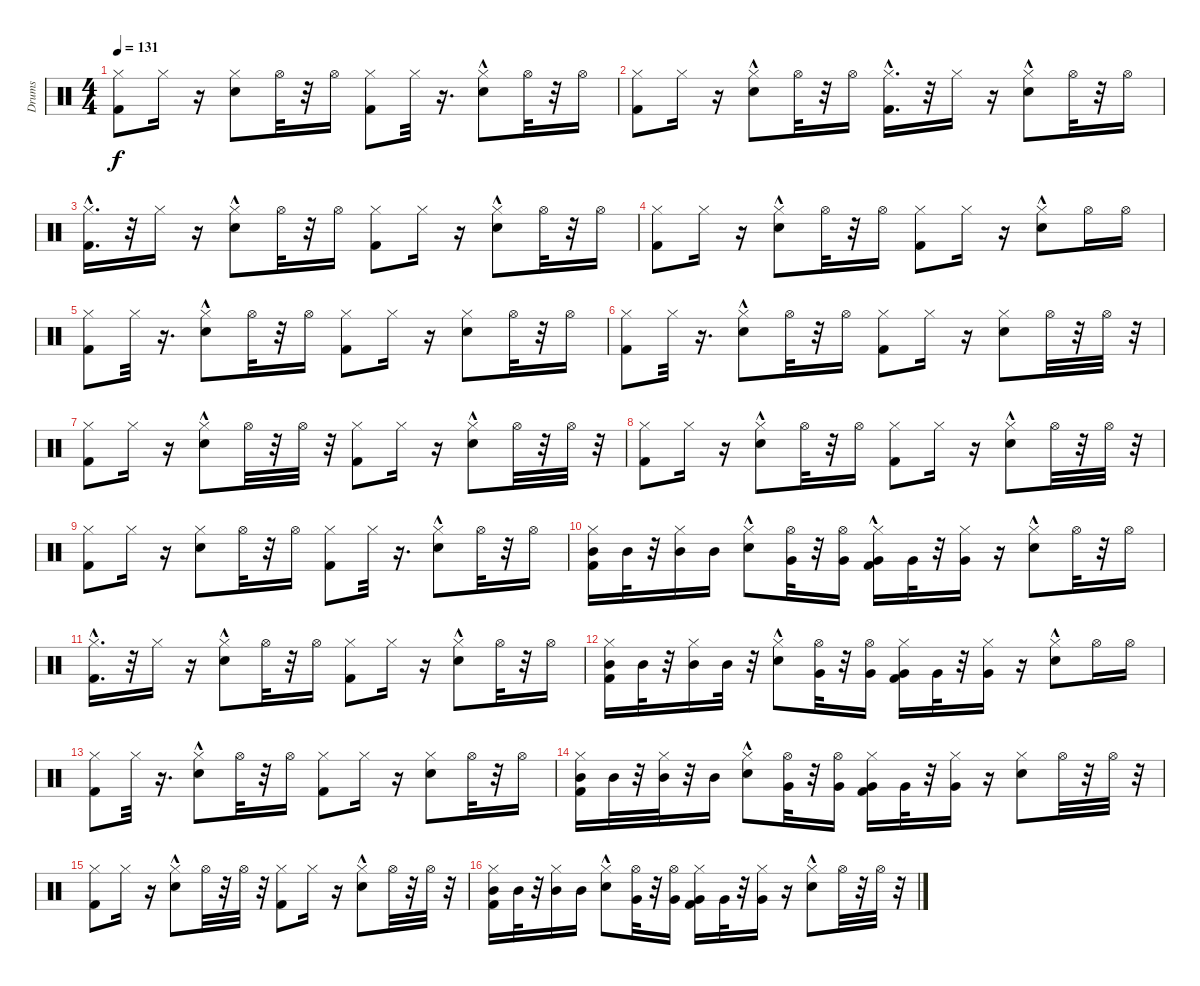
\track ("Drums" "Drums") {instrument percussion}
\staff {score}
\articulation defaults
\ts (4 4)
\tempo 131
\clef neutral
\ks c
("Kick (hit) 2" "Hi-Hat (closed)").8{dy f} "Hi-Hat (closed)".16 r.16 ("Snare (hit) 2" "Hi-Hat (closed)").8 "Hi-Hat (open)".32 r.32 "Hi-Hat (open)".16 ("Kick (hit) 2" "Hi-Hat (closed)").8 "Hi-Hat (closed)".32 r.16{d} ("Snare (hit) 2" "Hi-Hat (closed)"{hac}).8 "Hi-Hat (open)".32 r.32 "Hi-Hat (open)".16 |
("Kick (hit) 2" "Hi-Hat (closed)").8 "Hi-Hat (closed)".16 r.16 ("Snare (hit) 2" "Hi-Hat (closed)"{hac}).8 "Hi-Hat (open)".32 r.32 "Hi-Hat (open)".16 ("Kick (hit) 2"{hac} "Hi-Hat (closed)").16{d} r.32 "Hi-Hat (closed)".16 r.16 ("Snare (hit) 2" "Hi-Hat (closed)"{hac}).8 "Hi-Hat (open)".32 r.32 "Hi-Hat (open)".16 |
("Kick (hit) 2"{hac} "Hi-Hat (closed)").16{d} r.32 "Hi-Hat (closed)".16 r.16 ("Snare (hit) 2" "Hi-Hat (closed)"{hac}).8 "Hi-Hat (open)".32 r.32 "Hi-Hat (open)".16 ("Kick (hit) 2" "Hi-Hat (closed)").8 "Hi-Hat (closed)".16 r.16 ("Snare (hit) 2" "Hi-Hat (closed)"{hac}).8 "Hi-Hat (open)".32 r.32 "Hi-Hat (open)".16 |
("Kick (hit) 2" "Hi-Hat (closed)").8 "Hi-Hat (closed)".16 r.16 ("Snare (hit) 2" "Hi-Hat (closed)"{hac}).8 "Hi-Hat (open)".32 r.32 "Hi-Hat (open)".16 ("Kick (hit) 2" "Hi-Hat (closed)").8 "Hi-Hat (closed)".16 r.16 ("Snare (hit) 2" "Hi-Hat (closed)"{hac}).8 "Hi-Hat (open)".16 "Hi-Hat (open)".16 |
("Kick (hit) 2" "Hi-Hat (closed)").8 "Hi-Hat (closed)".32 r.16{d} ("Snare (hit) 2" "Hi-Hat (closed)"{hac}).8 "Hi-Hat (open)".32 r.32 "Hi-Hat (open)".16 ("Kick (hit) 2" "Hi-Hat (closed)").8 "Hi-Hat (closed)".16 r.16 ("Snare (hit) 2" "Hi-Hat (closed)").8 "Hi-Hat (open)".32 r.32 "Hi-Hat (open)".16 |
("Kick (hit) 2" "Hi-Hat (closed)").8 "Hi-Hat (closed)".32 r.16{d} ("Snare (hit) 2" "Hi-Hat (closed)"{hac}).8 "Hi-Hat (open)".32 r.32 "Hi-Hat (open)".16 ("Kick (hit) 2" "Hi-Hat (closed)").8 "Hi-Hat (closed)".16 r.16 ("Snare (hit) 2" "Hi-Hat (closed)").8 "Hi-Hat (open)".32 r.32 "Hi-Hat (open)".32 r.32 |
("Kick (hit) 2" "Hi-Hat (closed)").8 "Hi-Hat (closed)".16 r.16 ("Snare (hit) 2" "Hi-Hat (closed)"{hac}).8 "Hi-Hat (open)".32 r.32 "Hi-Hat (open)".32 r.32 ("Kick (hit) 2" "Hi-Hat (closed)").8 "Hi-Hat (closed)".16 r.16 ("Snare (hit) 2" "Hi-Hat (closed)"{hac}).8 "Hi-Hat (open)".32 r.32 "Hi-Hat (open)".32 r.32 |
("Kick (hit) 2" "Hi-Hat (closed)").8 "Hi-Hat (closed)".16 r.16 ("Snare (hit) 2" "Hi-Hat (closed)"{hac}).8 "Hi-Hat (open)".32 r.32 "Hi-Hat (open)".16 ("Kick (hit) 2" "Hi-Hat (closed)").8 "Hi-Hat (closed)".16 r.16 ("Snare (hit) 2" "Hi-Hat (closed)"{hac}).8 "Hi-Hat (open)".32 r.32 "Hi-Hat (open)".32 r.32 |
("Kick (hit) 2" "Hi-Hat (closed)").8 "Hi-Hat (closed)".16 r.16 ("Snare (hit) 2" "Hi-Hat (closed)").8 "Hi-Hat (open)".32 r.32 "Hi-Hat (open)".16 ("Kick (hit) 2" "Hi-Hat (closed)").8 "Hi-Hat (closed)".32 r.16{d} ("Snare (hit) 2" "Hi-Hat (closed)"{hac}).8 "Hi-Hat (open)".32 r.32 "Hi-Hat (open)".16 |
("Kick (hit) 2" "Hi-Hat (closed)" "Mid Tom (hit)").16 "Mid Tom (hit)".32 r.32 ("Hi-Hat (closed)" "Mid Tom (hit)").16 "Mid Tom (hit)".16 ("Snare (hit) 2" "Hi-Hat (closed)"{hac}).8 ("Hi-Hat (open)" "Very Low Tom (hit)").32 r.32 ("Hi-Hat (open)" "Very Low Tom (hit)").16 ("Kick (hit) 2"{hac} "Hi-Hat (closed)" "Very Low Tom (hit)").16 "Very Low Tom (hit)".32 r.32 ("Hi-Hat (closed)" "Very Low Tom (hit)").16 r.16 ("Snare (hit) 2" "Hi-Hat (closed)"{hac}).8 "Hi-Hat (open)".32 r.32 "Hi-Hat (open)".16 |
("Kick (hit) 2"{hac} "Hi-Hat (closed)").16{d} r.32 "Hi-Hat (closed)".16 r.16 ("Snare (hit) 2" "Hi-Hat (closed)"{hac}).8 "Hi-Hat (open)".32 r.32 "Hi-Hat (open)".16 ("Kick (hit) 2" "Hi-Hat (closed)").8 "Hi-Hat (closed)".16 r.16 ("Snare (hit) 2" "Hi-Hat (closed)"{hac}).8 "Hi-Hat (open)".32 r.32 "Hi-Hat (open)".16 |
("Kick (hit) 2" "Hi-Hat (closed)" "Mid Tom (hit)").16 "Mid Tom (hit)".32 r.32 ("Hi-Hat (closed)" "Mid Tom (hit)").16 "Mid Tom (hit)".32 r.32 ("Snare (hit) 2" "Hi-Hat (closed)"{hac}).8 ("Hi-Hat (open)" "Very Low Tom (hit)").32 r.32 ("Hi-Hat (open)" "Very Low Tom (hit)").16 ("Kick (hit) 2" "Hi-Hat (closed)" "Very Low Tom (hit)").16 "Very Low Tom (hit)".32 r.32 ("Hi-Hat (closed)" "Very Low Tom (hit)").16 r.16 ("Snare (hit) 2" "Hi-Hat (closed)"{hac}).8 "Hi-Hat (open)".16 "Hi-Hat (open)".16 |
("Kick (hit) 2" "Hi-Hat (closed)").8 "Hi-Hat (closed)".32 r.16{d} ("Snare (hit) 2" "Hi-Hat (closed)"{hac}).8 "Hi-Hat (open)".32 r.32 "Hi-Hat (open)".16 ("Kick (hit) 2" "Hi-Hat (closed)").8 "Hi-Hat (closed)".16 r.16 ("Snare (hit) 2" "Hi-Hat (closed)").8 "Hi-Hat (open)".32 r.32 "Hi-Hat (open)".16 |
("Kick (hit) 2" "Hi-Hat (closed)" "Mid Tom (hit)").16 "Mid Tom (hit)".32 r.32 ("Hi-Hat (closed)" "Mid Tom (hit)").32 r.32 "Mid Tom (hit)".16 ("Snare (hit) 2" "Hi-Hat (closed)"{hac}).8 ("Hi-Hat (open)" "Very Low Tom (hit)").32 r.32 ("Hi-Hat (open)" "Very Low Tom (hit)").16 ("Kick (hit) 2" "Hi-Hat (closed)" "Very Low Tom (hit)").16 "Very Low Tom (hit)".32 r.32 ("Hi-Hat (closed)" "Very Low Tom (hit)").16 r.16 ("Snare (hit) 2" "Hi-Hat (closed)").8 "Hi-Hat (open)".32 r.32 "Hi-Hat (open)".32 r.32 |
("Kick (hit) 2" "Hi-Hat (closed)").8 "Hi-Hat (closed)".16 r.16 ("Snare (hit) 2" "Hi-Hat (closed)"{hac}).8 "Hi-Hat (open)".32 r.32 "Hi-Hat (open)".32 r.32 ("Kick (hit) 2" "Hi-Hat (closed)").8 "Hi-Hat (closed)".16 r.16 ("Snare (hit) 2" "Hi-Hat (closed)"{hac}).8 "Hi-Hat (open)".32 r.32 "Hi-Hat (open)".32 r.32 |
("Kick (hit) 2" "Hi-Hat (closed)" "Mid Tom (hit)").16 "Mid Tom (hit)".32 r.32 ("Hi-Hat (closed)" "Mid Tom (hit)").16 "Mid Tom (hit)".16 ("Snare (hit) 2" "Hi-Hat (closed)"{hac}).8 ("Hi-Hat (open)" "Very Low Tom (hit)").32 r.32 ("Hi-Hat (open)" "Very Low Tom (hit)").16 ("Kick (hit) 2" "Hi-Hat (closed)" "Very Low Tom (hit)").16 "Very Low Tom (hit)".32 r.32 ("Hi-Hat (closed)" "Very Low Tom (hit)").16 r.16 ("Snare (hit) 2" "Hi-Hat (closed)"{hac}).8 "Hi-Hat (open)".32 r.32 "Hi-Hat (open)".32 r.32
